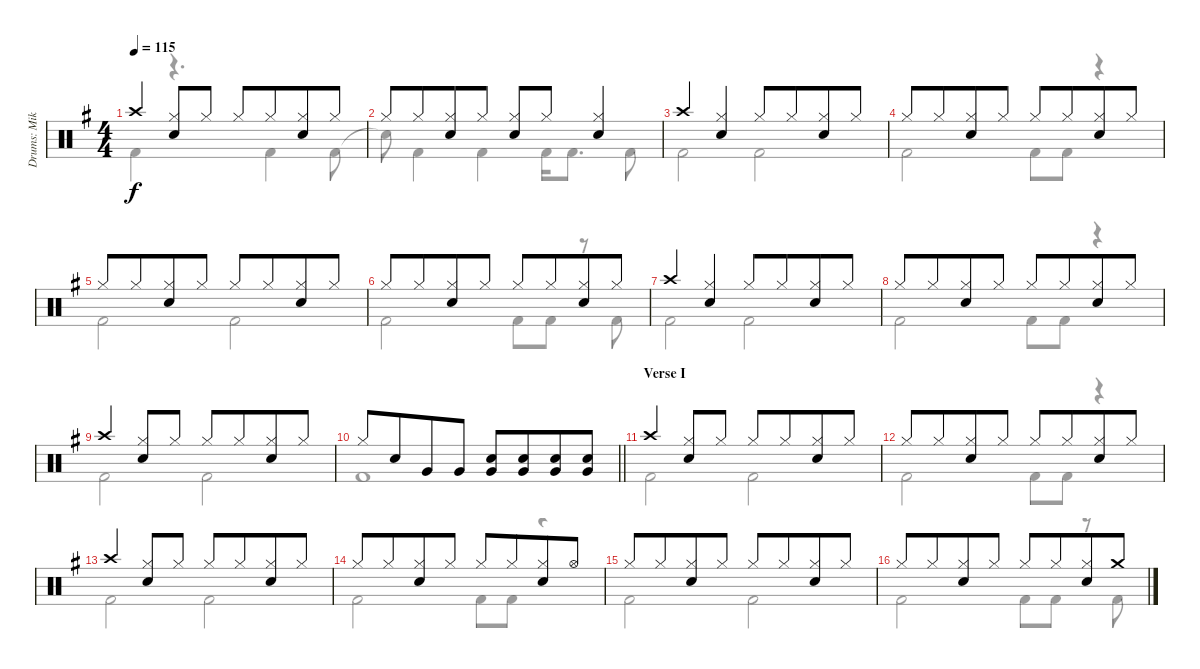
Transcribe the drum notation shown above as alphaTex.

\track ("Drums: Mikkey" "Drums: Mik") {instrument percussion}
\staff {score}
\articulation defaults
\voice
\ts (4 4)
\tempo 115
\clef neutral
\ks g "Crash high (hit)".4{dy f}
("Hi-Hat (closed)" "Snare (hit) 2").8 "Hi-Hat (closed)".8 "Hi-Hat (closed)".8 "Hi-Hat (closed)".8{beam merge} ("Hi-Hat (closed)" "Snare (hit) 2").8 "Hi-Hat (closed)".8 |
"Hi-Hat (closed)".8 "Hi-Hat (closed)".8{beam merge} ("Hi-Hat (closed)" "Snare (hit) 2").8 "Hi-Hat (closed)".8{beam split} ("Hi-Hat (closed)" "Snare (hit) 2").8 "Hi-Hat (closed)".8 ("Hi-Hat (closed)" "Snare (hit) 2").4 |
"Crash high (hit)".4 ("Hi-Hat (closed)" "Snare (hit) 2").4 "Hi-Hat (closed)".8 "Hi-Hat (closed)".8{beam merge} ("Hi-Hat (closed)" "Snare (hit) 2").8 "Hi-Hat (closed)".8 |
"Hi-Hat (closed)".8 "Hi-Hat (closed)".8{beam merge} ("Hi-Hat (closed)" "Snare (hit) 2").8 "Hi-Hat (closed)".8 "Hi-Hat (closed)".8 "Hi-Hat (closed)".8{beam merge} ("Hi-Hat (closed)" "Snare (hit) 2").8 "Hi-Hat (closed)".8 |
"Hi-Hat (closed)".8 "Hi-Hat (closed)".8{beam merge} ("Hi-Hat (closed)" "Snare (hit) 2").8 "Hi-Hat (closed)".8 "Hi-Hat (closed)".8 "Hi-Hat (closed)".8{beam merge} ("Hi-Hat (closed)" "Snare (hit) 2").8 "Hi-Hat (closed)".8 |
"Hi-Hat (closed)".8 "Hi-Hat (closed)".8{beam merge} ("Hi-Hat (closed)" "Snare (hit) 2").8 "Hi-Hat (closed)".8 "Hi-Hat (closed)".8 "Hi-Hat (closed)".8{beam merge} ("Hi-Hat (closed)" "Snare (hit) 2").8 "Hi-Hat (closed)".8 |
"Crash high (hit)".4 ("Hi-Hat (closed)" "Snare (hit) 2").4 "Hi-Hat (closed)".8 "Hi-Hat (closed)".8{beam merge} ("Hi-Hat (closed)" "Snare (hit) 2").8 "Hi-Hat (closed)".8 |
"Hi-Hat (closed)".8 "Hi-Hat (closed)".8{beam merge} ("Hi-Hat (closed)" "Snare (hit) 2").8 "Hi-Hat (closed)".8 "Hi-Hat (closed)".8 "Hi-Hat (closed)".8{beam merge} ("Hi-Hat (closed)" "Snare (hit) 2").8 "Hi-Hat (closed)".8 |
"Crash high (hit)".4 ("Hi-Hat (closed)" "Snare (hit) 2").8 "Hi-Hat (closed)".8 "Hi-Hat (closed)".8 "Hi-Hat (closed)".8{beam merge} ("Hi-Hat (closed)" "Snare (hit) 2").8 "Hi-Hat (closed)".8 |
\barLineRight lightlight "Hi-Hat (closed)".8 "Snare (hit) 2".8{beam merge} "Very Low Tom (hit)".8 "Very Low Tom (hit)".8
("Snare (hit) 2" "Very Low Tom (hit)").8 ("Snare (hit) 2" "Very Low Tom (hit)").8{beam merge} ("Snare (hit) 2" "Very Low Tom (hit)").8 ("Snare (hit) 2" "Very Low Tom (hit)").8 |
\section ("" "Verse I")
"Crash high (hit)".4 ("Hi-Hat (closed)" "Snare (hit) 2").8 "Hi-Hat (closed)".8 "Hi-Hat (closed)".8 "Hi-Hat (closed)".8{beam merge} ("Hi-Hat (closed)" "Snare (hit) 2").8 "Hi-Hat (closed)".8 |
"Hi-Hat (closed)".8 "Hi-Hat (closed)".8{beam merge} ("Hi-Hat (closed)" "Snare (hit) 2").8 "Hi-Hat (closed)".8 "Hi-Hat (closed)".8 "Hi-Hat (closed)".8{beam merge} ("Hi-Hat (closed)" "Snare (hit) 2").8 "Hi-Hat (closed)".8 |
"Crash high (hit)".4 ("Hi-Hat (closed)" "Snare (hit) 2").8 "Hi-Hat (closed)".8 "Hi-Hat (closed)".8 "Hi-Hat (closed)".8{beam merge} ("Hi-Hat (closed)" "Snare (hit) 2").8 "Hi-Hat (closed)".8 |
"Hi-Hat (closed)".8 "Hi-Hat (closed)".8{beam merge} ("Hi-Hat (closed)" "Snare (hit) 2").8 "Hi-Hat (closed)".8 "Hi-Hat (closed)".8 "Hi-Hat (closed)".8{beam merge} ("Hi-Hat (closed)" "Snare (hit) 2").8 "Hi-Hat (open)".8 |
"Hi-Hat (closed)".8 "Hi-Hat (closed)".8{beam merge} ("Hi-Hat (closed)" "Snare (hit) 2").8 "Hi-Hat (closed)".8 "Hi-Hat (closed)".8 "Hi-Hat (closed)".8{beam merge} ("Hi-Hat (closed)" "Snare (hit) 2").8 "Hi-Hat (closed)".8 |
"Hi-Hat (closed)".8 "Hi-Hat (closed)".8{beam merge} ("Hi-Hat (closed)" "Snare (hit) 2").8 "Hi-Hat (closed)".8 "Hi-Hat (closed)".8 "Hi-Hat (closed)".8{beam merge} ("Hi-Hat (closed)" "Snare (hit) 2").8 "Crash medium (hit)".8
\voice
\clef neutral
\ottava regular
\simile none
\ks g "Kick (hit) 2".4{dy f}
r.4{d} "Kick (hit) 2".4 "Kick (hit) 2".8 |
"Snare (hit)"{t}.8 "Kick (hit) 2".4 "Kick (hit) 2".4 "Kick (hit) 2".16 "Kick (hit) 2".8{d} "Kick (hit) 2".8 |
"Kick (hit) 2".2 "Kick (hit) 2".2 |
"Kick (hit) 2".2 "Kick (hit) 2".8 "Kick (hit) 2".8 r.4 |
"Kick (hit) 2".2 "Kick (hit) 2".2 |
"Kick (hit) 2".2 "Kick (hit) 2".8 "Kick (hit) 2".8 r.8 "Kick (hit) 2".8 |
"Kick (hit) 2".2 "Kick (hit) 2".2 |
"Kick (hit) 2".2 "Kick (hit) 2".8 "Kick (hit) 2".8 r.4 |
"Kick (hit) 2".2 "Kick (hit) 2".2 |
\barLineRight lightlight "Kick (hit) 2".1
|
"Kick (hit) 2".2 "Kick (hit) 2".2 |
"Kick (hit) 2".2 "Kick (hit) 2".8 "Kick (hit) 2".8 r.4 |
"Kick (hit) 2".2 "Kick (hit) 2".2 |
"Kick (hit) 2".2 "Kick (hit) 2".8 "Kick (hit) 2".8 r.4 |
"Kick (hit) 2".2 "Kick (hit) 2".2 |
"Kick (hit) 2".2 "Kick (hit) 2".8 "Kick (hit) 2".8 r.8 "Kick (hit) 2".8
